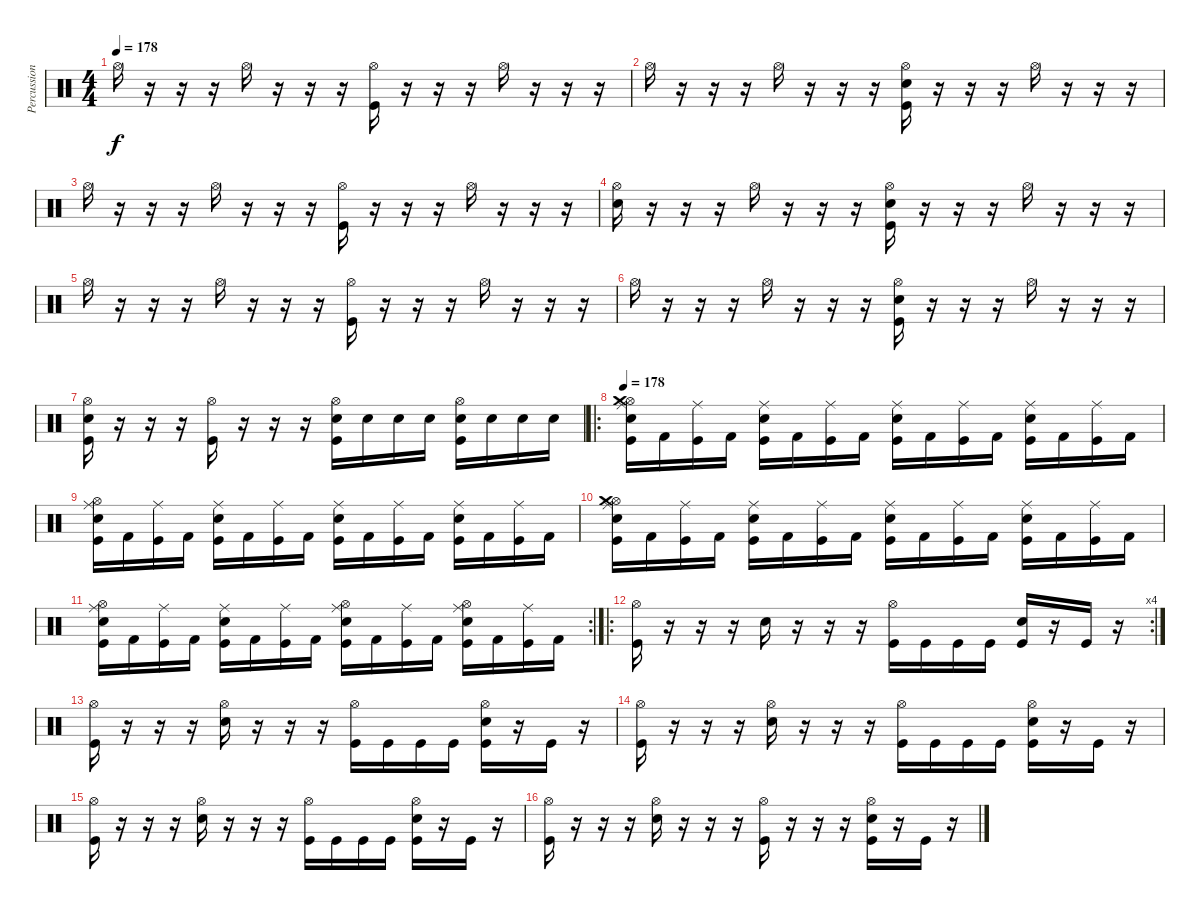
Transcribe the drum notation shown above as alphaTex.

\track ("Percussions" "Percussion") {instrument percussion}
\staff {score}
\articulation defaults
\ts (4 4)
\tempo 178
\clef neutral
\ks c "Hi-Hat (open)".16{dy f}
r.16 r.16 r.16 "Hi-Hat (open)".16 r.16 r.16 r.16 ("Hi-Hat (open)" "Kick (hit)").16 r.16 r.16 r.16 "Hi-Hat (open)".16 r.16 r.16 r.16 |
"Hi-Hat (open)".16 r.16 r.16 r.16 "Hi-Hat (open)".16 r.16 r.16 r.16 ("Hi-Hat (open)" "Electric Snare (hit)" "Kick (hit)").16 r.16 r.16 r.16 "Hi-Hat (open)".16 r.16 r.16 r.16 |
"Hi-Hat (open)".16 r.16 r.16 r.16 "Hi-Hat (open)".16 r.16 r.16 r.16 ("Hi-Hat (open)" "Kick (hit)").16 r.16 r.16 r.16 "Hi-Hat (open)".16 r.16 r.16 r.16 |
("Hi-Hat (open)" "Snare (hit) 2").16 r.16 r.16 r.16 "Hi-Hat (open)".16 r.16 r.16 r.16 ("Hi-Hat (open)" "Electric Snare (hit)" "Kick (hit)").16 r.16 r.16 r.16 "Hi-Hat (open)".16 r.16 r.16 r.16 |
"Hi-Hat (open)".16 r.16 r.16 r.16 "Hi-Hat (open)".16 r.16 r.16 r.16 ("Hi-Hat (open)" "Kick (hit)").16 r.16 r.16 r.16 "Hi-Hat (open)".16 r.16 r.16 r.16 |
"Hi-Hat (open)".16 r.16 r.16 r.16 "Hi-Hat (open)".16 r.16 r.16 r.16 ("Hi-Hat (open)" "Electric Snare (hit)" "Kick (hit)").16 r.16 r.16 r.16 "Hi-Hat (open)".16 r.16 r.16 r.16 |
("Hi-Hat (open)" "Snare (hit) 2" "Kick (hit)").16 r.16 r.16 r.16 ("Hi-Hat (open)" "Kick (hit)").16 r.16 r.16 r.16 ("Hi-Hat (open)" "Snare (hit) 2" "Kick (hit)").16 "Snare (hit) 2".16 "Snare (hit) 2".16 "Snare (hit) 2".16 ("Hi-Hat (open)" "Electric Snare (hit)" "Kick (hit)").16 "Electric Snare (hit)".16 "Electric Snare (hit)".16 "Electric Snare (hit)".16 |
\ro
\tempo 178
("Electric Snare (hit)" "Ride (middle)" "Hi-Hat (open)" "Crash medium (hit)" "Kick (hit)").16 "Kick (hit) 2".16 ("Ride (middle)" "Kick (hit)").16 "Kick (hit) 2".16 ("Electric Snare (hit)" "Ride (middle)" "Kick (hit)").16 "Kick (hit) 2".16 ("Ride (middle)" "Kick (hit)").16 "Kick (hit) 2".16 ("Electric Snare (hit)" "Ride (middle)" "Kick (hit)").16 "Kick (hit) 2".16 ("Ride (middle)" "Kick (hit)").16 "Kick (hit) 2".16 ("Electric Snare (hit)" "Ride (middle)" "Kick (hit)").16 "Kick (hit) 2".16 ("Ride (middle)" "Kick (hit)").16 "Kick (hit) 2".16 |
("Electric Snare (hit)" "Ride (middle)" "Hi-Hat (open)" "Kick (hit)").16 "Kick (hit) 2".16 ("Ride (middle)" "Kick (hit)").16 "Kick (hit) 2".16 ("Electric Snare (hit)" "Ride (middle)" "Kick (hit)").16 "Kick (hit) 2".16 ("Ride (middle)" "Kick (hit)").16 "Kick (hit) 2".16 ("Electric Snare (hit)" "Ride (middle)" "Kick (hit)").16 "Kick (hit) 2".16 ("Ride (middle)" "Kick (hit)").16 "Kick (hit) 2".16 ("Electric Snare (hit)" "Ride (middle)" "Kick (hit)").16 "Kick (hit) 2".16 ("Ride (middle)" "Kick (hit)").16 "Kick (hit) 2".16 |
("Electric Snare (hit)" "Ride (middle)" "Hi-Hat (open)" "Crash medium (hit)" "Kick (hit)").16 "Kick (hit) 2".16 ("Ride (middle)" "Kick (hit)").16 "Kick (hit) 2".16 ("Electric Snare (hit)" "Ride (middle)" "Kick (hit)").16 "Kick (hit) 2".16 ("Ride (middle)" "Kick (hit)").16 "Kick (hit) 2".16 ("Electric Snare (hit)" "Ride (middle)" "Kick (hit)").16 "Kick (hit) 2".16 ("Ride (middle)" "Kick (hit)").16 "Kick (hit) 2".16 ("Electric Snare (hit)" "Ride (middle)" "Kick (hit)").16 "Kick (hit) 2".16 ("Ride (middle)" "Kick (hit)").16 "Kick (hit) 2".16 |
\rc 2
("Electric Snare (hit)" "Ride (middle)" "Hi-Hat (open)" "Kick (hit)").16 "Kick (hit) 2".16 ("Ride (middle)" "Kick (hit)").16 "Kick (hit) 2".16 ("Electric Snare (hit)" "Ride (middle)" "Kick (hit)").16 "Kick (hit) 2".16 ("Ride (middle)" "Kick (hit)").16 "Kick (hit) 2".16 ("Electric Snare (hit)" "Ride (middle)" "Hi-Hat (open)" "Kick (hit)").16 "Kick (hit) 2".16 ("Ride (middle)" "Kick (hit)").16 "Kick (hit) 2".16 ("Electric Snare (hit)" "Ride (middle)" "Hi-Hat (open)" "Kick (hit)").16 "Kick (hit) 2".16 ("Ride (middle)" "Kick (hit)").16 "Kick (hit) 2".16 |
\ro
\rc 4
("Hi-Hat (open)" "Kick (hit)").16 r.16 r.16 r.16 "Snare (hit) 2".16 r.16 r.16 r.16 ("Hi-Hat (open)" "Kick (hit)").16 "Kick (hit)".16 "Kick (hit)".16 "Kick (hit)".16 ("Snare (hit) 2" "Kick (hit)").16 r.16 "Kick (hit)".16 r.16 |
("Hi-Hat (open)" "Kick (hit)").16 r.16 r.16 r.16 ("Hi-Hat (open)" "Snare (hit) 2").16 r.16 r.16 r.16 ("Hi-Hat (open)" "Kick (hit)").16 "Kick (hit)".16 "Kick (hit)".16 "Kick (hit)".16 ("Hi-Hat (open)" "Snare (hit) 2" "Kick (hit)").16 r.16 "Kick (hit)".16 r.16 |
("Hi-Hat (open)" "Kick (hit)").16 r.16 r.16 r.16 ("Hi-Hat (open)" "Snare (hit) 2").16 r.16 r.16 r.16 ("Hi-Hat (open)" "Kick (hit)").16 "Kick (hit)".16 "Kick (hit)".16 "Kick (hit)".16 ("Hi-Hat (open)" "Snare (hit) 2" "Kick (hit)").16 r.16 "Kick (hit)".16 r.16 |
("Hi-Hat (open)" "Kick (hit)").16 r.16 r.16 r.16 ("Hi-Hat (open)" "Snare (hit) 2").16 r.16 r.16 r.16 ("Hi-Hat (open)" "Kick (hit)").16 "Kick (hit)".16 "Kick (hit)".16 "Kick (hit)".16 ("Hi-Hat (open)" "Snare (hit) 2" "Kick (hit)").16 r.16 "Kick (hit)".16 r.16 |
("Hi-Hat (open)" "Kick (hit)").16 r.16 r.16 r.16 ("Hi-Hat (open)" "Snare (hit) 2").16 r.16 r.16 r.16 ("Hi-Hat (open)" "Kick (hit)").16 r.16 r.16 r.16 ("Hi-Hat (open)" "Snare (hit) 2" "Kick (hit)").16 r.16 "Kick (hit)".16 r.16
